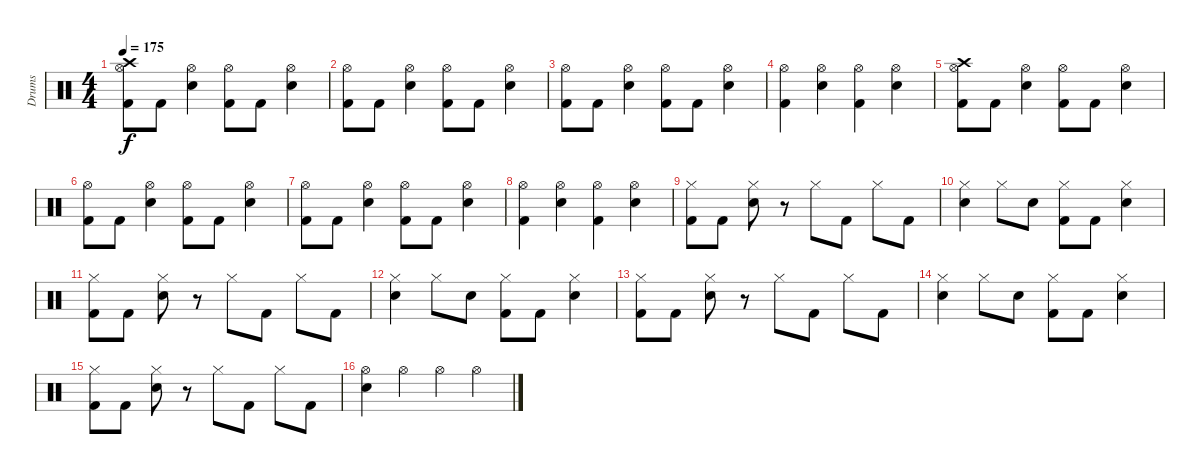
\track ("Drums" "Drums") {instrument percussion}
\staff {score}
\articulation defaults
\ts (4 4)
\tempo 175
\clef neutral
\ks c
("Crash high (hit)" "Hi-Hat (open)" "Kick (hit) 2").8{dy f} "Kick (hit) 2".8 ("Hi-Hat (open)" "Electric Snare (hit)").4 ("Hi-Hat (open)" "Kick (hit) 2").8 "Kick (hit) 2".8 ("Hi-Hat (open)" "Electric Snare (hit)").4 |
("Hi-Hat (open)" "Kick (hit) 2").8 "Kick (hit) 2".8 ("Hi-Hat (open)" "Electric Snare (hit)").4 ("Hi-Hat (open)" "Kick (hit) 2").8 "Kick (hit) 2".8 ("Hi-Hat (open)" "Electric Snare (hit)").4 |
("Hi-Hat (open)" "Kick (hit) 2").8 "Kick (hit) 2".8 ("Hi-Hat (open)" "Electric Snare (hit)").4 ("Hi-Hat (open)" "Kick (hit) 2").8 "Kick (hit) 2".8 ("Hi-Hat (open)" "Electric Snare (hit)").4 |
("Hi-Hat (open)" "Kick (hit) 2").4 ("Hi-Hat (open)" "Electric Snare (hit)").4 ("Hi-Hat (open)" "Kick (hit) 2").4 ("Hi-Hat (open)" "Electric Snare (hit)").4 |
("Crash high (hit)" "Hi-Hat (open)" "Kick (hit) 2").8 "Kick (hit) 2".8 ("Hi-Hat (open)" "Electric Snare (hit)").4 ("Hi-Hat (open)" "Kick (hit) 2").8 "Kick (hit) 2".8 ("Hi-Hat (open)" "Electric Snare (hit)").4 |
("Hi-Hat (open)" "Kick (hit) 2").8 "Kick (hit) 2".8 ("Hi-Hat (open)" "Electric Snare (hit)").4 ("Hi-Hat (open)" "Kick (hit) 2").8 "Kick (hit) 2".8 ("Hi-Hat (open)" "Electric Snare (hit)").4 |
("Hi-Hat (open)" "Kick (hit) 2").8 "Kick (hit) 2".8 ("Hi-Hat (open)" "Electric Snare (hit)").4 ("Hi-Hat (open)" "Kick (hit) 2").8 "Kick (hit) 2".8 ("Hi-Hat (open)" "Electric Snare (hit)").4 |
("Hi-Hat (open)" "Kick (hit) 2").4 ("Hi-Hat (open)" "Electric Snare (hit)").4 ("Hi-Hat (open)" "Kick (hit) 2").4 ("Hi-Hat (open)" "Electric Snare (hit)").4 |
("Hi-Hat (closed)" "Kick (hit) 2").8 "Kick (hit) 2".8 ("Hi-Hat (closed)" "Electric Snare (hit)").8 r.8 "Hi-Hat (closed)".8 "Kick (hit) 2".8 "Hi-Hat (closed)".8 "Kick (hit) 2".8 |
("Hi-Hat (closed)" "Electric Snare (hit)").4 "Hi-Hat (closed)".8 "Electric Snare (hit)".8 ("Hi-Hat (closed)" "Kick (hit) 2").8 "Kick (hit) 2".8 ("Hi-Hat (closed)" "Electric Snare (hit)").4 |
("Hi-Hat (closed)" "Kick (hit) 2").8 "Kick (hit) 2".8 ("Hi-Hat (closed)" "Electric Snare (hit)").8 r.8 "Hi-Hat (closed)".8 "Kick (hit) 2".8 "Hi-Hat (closed)".8 "Kick (hit) 2".8 |
("Hi-Hat (closed)" "Electric Snare (hit)").4 "Hi-Hat (closed)".8 "Electric Snare (hit)".8 ("Hi-Hat (closed)" "Kick (hit) 2").8 "Kick (hit) 2".8 ("Hi-Hat (closed)" "Electric Snare (hit)").4 |
("Hi-Hat (closed)" "Kick (hit) 2").8 "Kick (hit) 2".8 ("Hi-Hat (closed)" "Electric Snare (hit)").8 r.8 "Hi-Hat (closed)".8 "Kick (hit) 2".8 "Hi-Hat (closed)".8 "Kick (hit) 2".8 |
("Hi-Hat (closed)" "Electric Snare (hit)").4 "Hi-Hat (closed)".8 "Electric Snare (hit)".8 ("Hi-Hat (closed)" "Kick (hit) 2").8 "Kick (hit) 2".8 ("Hi-Hat (closed)" "Electric Snare (hit)").4 |
("Hi-Hat (closed)" "Kick (hit) 2").8 "Kick (hit) 2".8 ("Hi-Hat (closed)" "Electric Snare (hit)").8 r.8 "Hi-Hat (closed)".8 "Kick (hit) 2".8 "Hi-Hat (closed)".8 "Kick (hit) 2".8 |
("Hi-Hat (open)" "Electric Snare (hit)").4 "Hi-Hat (open)".4 "Hi-Hat (open)".4 "Hi-Hat (open)".4
